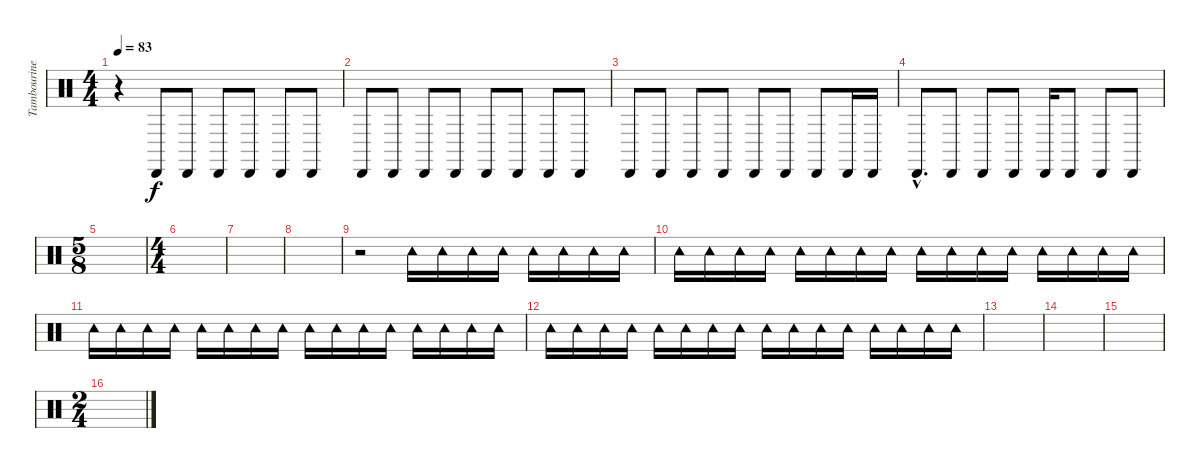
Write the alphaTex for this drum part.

\track ("Tambourine" "Tambourine") {instrument percussion}
\staff {score}
\articulation defaults
\ts (4 4)
\tempo 83
\clef neutral
\ks c
r.4{dy f} "Cabasa (hit)".8 "Cabasa (hit)".8 "Cabasa (hit)".8 "Cabasa (hit)".8 "Cabasa (hit)".8 "Cabasa (hit)".8 |
"Cabasa (hit)".8 "Cabasa (hit)".8 "Cabasa (hit)".8 "Cabasa (hit)".8 "Cabasa (hit)".8 "Cabasa (hit)".8 "Cabasa (hit)".8 "Cabasa (hit)".8 |
"Cabasa (hit)".8 "Cabasa (hit)".8 "Cabasa (hit)".8 "Cabasa (hit)".8 "Cabasa (hit)".8 "Cabasa (hit)".8 "Cabasa (hit)".8 "Cabasa (hit)".16 "Cabasa (hit)".16 |
"Cabasa (hit)"{hac}.8{d} "Cabasa (hit)".8 "Cabasa (hit)".8 "Cabasa (hit)".8 "Cabasa (hit)".16 "Cabasa (hit)".8 "Cabasa (hit)".8 "Cabasa (hit)".8 |
\ts (5 8)
|
\ts (4 4)
|
|
|
r.2 "Tambourine (hit)".16 "Tambourine (hit)".16 "Tambourine (hit)".16 "Tambourine (hit)".16 "Tambourine (hit)".16 "Tambourine (hit)".16 "Tambourine (hit)".16 "Tambourine (hit)".16 |
"Tambourine (hit)".16 "Tambourine (hit)".16 "Tambourine (hit)".16 "Tambourine (hit)".16 "Tambourine (hit)".16 "Tambourine (hit)".16 "Tambourine (hit)".16 "Tambourine (hit)".16 "Tambourine (hit)".16 "Tambourine (hit)".16 "Tambourine (hit)".16 "Tambourine (hit)".16 "Tambourine (hit)".16 "Tambourine (hit)".16 "Tambourine (hit)".16 "Tambourine (hit)".16 |
"Tambourine (hit)".16 "Tambourine (hit)".16 "Tambourine (hit)".16 "Tambourine (hit)".16 "Tambourine (hit)".16 "Tambourine (hit)".16 "Tambourine (hit)".16 "Tambourine (hit)".16 "Tambourine (hit)".16 "Tambourine (hit)".16 "Tambourine (hit)".16 "Tambourine (hit)".16 "Tambourine (hit)".16 "Tambourine (hit)".16 "Tambourine (hit)".16 "Tambourine (hit)".16 |
"Tambourine (hit)".16 "Tambourine (hit)".16 "Tambourine (hit)".16 "Tambourine (hit)".16 "Tambourine (hit)".16 "Tambourine (hit)".16 "Tambourine (hit)".16 "Tambourine (hit)".16 "Tambourine (hit)".16 "Tambourine (hit)".16 "Tambourine (hit)".16 "Tambourine (hit)".16 "Tambourine (hit)".16 "Tambourine (hit)".16 "Tambourine (hit)".16 "Tambourine (hit)".16 |
|
|
|
\ts (2 4)
